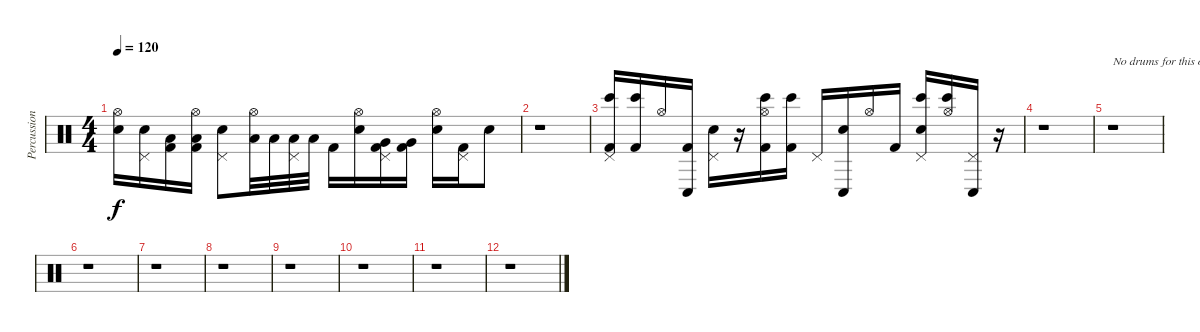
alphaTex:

\track ("Percussion" "Percussion") {instrument percussion}
\staff {score}
\articulation defaults
\ts (4 4)
\tempo 120
\clef neutral
\ks c
("Snare (hit) 2" "Hi-Hat (open)").16{dy f} ("Snare (hit) 2" "Pedal Hi-Hat (hit)").16 ("Kick (hit) 2" "Low Tom (hit)").16 ("Kick (hit) 2" "Low Tom (hit)" "Hi-Hat (open)").16 ("Snare (hit) 2" "Pedal Hi-Hat (hit)").8 ("Low Tom (hit)" "Hi-Hat (open)").32 "Low Tom (hit)".32 ("Low Tom (hit)" "Pedal Hi-Hat (hit)").32 "Low Tom (hit)".32 "Kick (hit) 2".16 ("Snare (hit) 2" "Hi-Hat (open)").16 ("Kick (hit) 2" "Very Low Tom (hit)" "Pedal Hi-Hat (hit)").16 ("Kick (hit) 2" "Very Low Tom (hit)").16 ("Snare (hit) 2" "Hi-Hat (open)").16 ("Kick (hit) 2" "Pedal Hi-Hat (hit)").16 "Snare (hit) 2".8 |
r.1 |
("Kick (hit) 2" "Pedal Hi-Hat (hit)" "Bongo High (hit)").16 ("Kick (hit) 2" "Bongo High (hit)").16 "Hi-Hat (open)".16 ("Kick (hit) 2" "Conga low (hit)").16 ("Snare (hit) 2" "Pedal Hi-Hat (hit)").16 r.16 ("Kick (hit) 2" "Hi-Hat (open)" "Bongo High (hit)").16 ("Kick (hit) 2" "Bongo High (hit)").16 "Pedal Hi-Hat (hit)".16 ("Snare (hit) 2" "Conga low (hit)").16 "Hi-Hat (open)".16 "Kick (hit) 2".16 ("Snare (hit) 2" "Pedal Hi-Hat (hit)" "Bongo High (hit)").16 ("Hi-Hat (open)" "Bongo High (hit)").16 ("Pedal Hi-Hat (hit)" "Conga low (hit)").16 r.16 |
r.1 |
r.1{txt "No drums for this one!"} |
r.1 |
r.1 |
r.1 |
r.1 |
r.1 |
r.1 |
r.1
